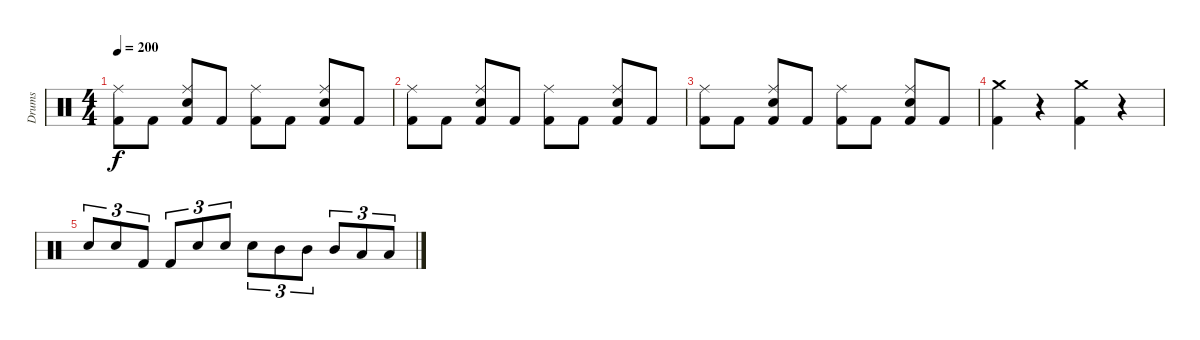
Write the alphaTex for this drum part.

\track ("Drums" "Drums") {instrument percussion}
\staff {score}
\articulation defaults
\ts (4 4)
\tempo 200
\clef neutral
\ks c
("Kick (hit) 2" "Ride (middle)").8{dy f} "Kick (hit) 2".8 ("Kick (hit) 2" "Ride (middle)" "Electric Snare (hit)").8 "Kick (hit) 2".8 ("Kick (hit) 2" "Ride (middle)").8 "Kick (hit) 2".8 ("Kick (hit) 2" "Ride (middle)" "Electric Snare (hit)").8 "Kick (hit) 2".8 |
("Kick (hit) 2" "Ride (middle)").8 "Kick (hit) 2".8 ("Kick (hit) 2" "Ride (middle)" "Electric Snare (hit)").8 "Kick (hit) 2".8 ("Kick (hit) 2" "Ride (middle)").8 "Kick (hit) 2".8 ("Kick (hit) 2" "Ride (middle)" "Electric Snare (hit)").8 "Kick (hit) 2".8 |
("Kick (hit) 2" "Ride (middle)").8 "Kick (hit) 2".8 ("Kick (hit) 2" "Ride (middle)" "Electric Snare (hit)").8 "Kick (hit) 2".8 ("Kick (hit) 2" "Ride (middle)").8 "Kick (hit) 2".8 ("Kick (hit) 2" "Ride (middle)" "Electric Snare (hit)").8 "Kick (hit) 2".8 |
("Kick (hit) 2" "Crash medium (hit)").4 r.4{volume 0} ("Kick (hit) 2" "Crash medium (hit)").4{volume 13} r.4{volume 0} |
"Electric Snare (hit)".8{tu (3 2) volume 13} "Electric Snare (hit)".8{tu (3 2)} "Kick (hit) 2".8{tu (3 2)} "Kick (hit) 2".8{tu (3 2)} "Electric Snare (hit)".8{tu (3 2)} "Electric Snare (hit)".8{tu (3 2)} "Electric Snare (hit)".8{tu (3 2)} "Mid Tom (hit)".8{tu (3 2)} "Mid Tom (hit)".8{tu (3 2)} "Mid Tom (hit)".8{tu (3 2)} "Low Tom (hit)".8{tu (3 2)} "Low Tom (hit)".8{tu (3 2)}
